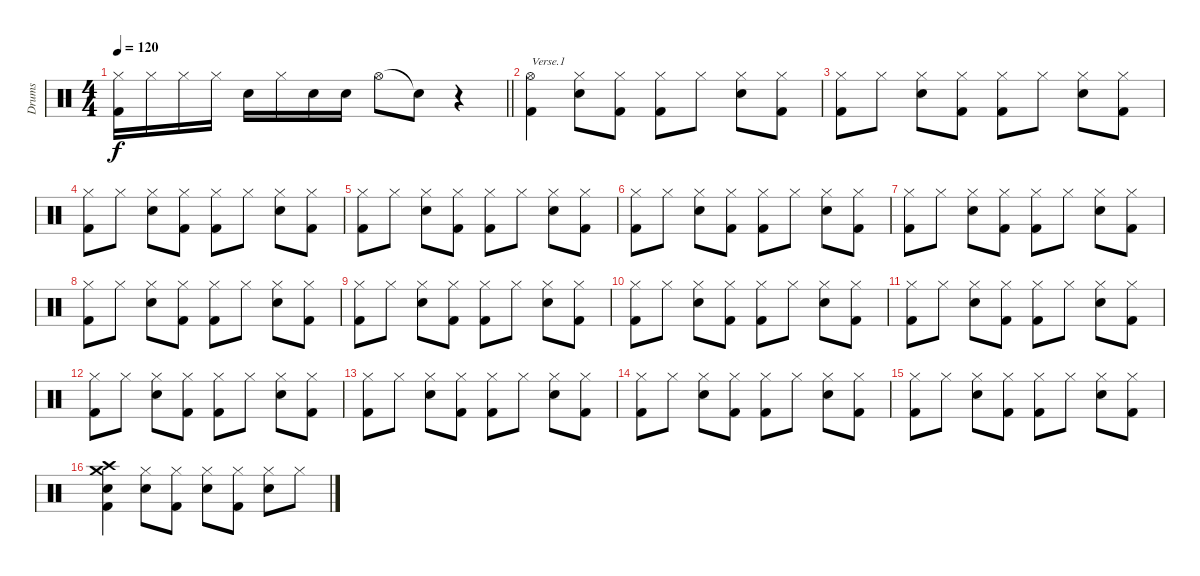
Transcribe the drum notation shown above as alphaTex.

\track ("Drums" "Drums") {instrument percussion}
\staff {score}
\articulation defaults
\ts (4 4)
\tempo 120
\clef neutral
\barLineRight lightlight
\ks c
("Hi-Hat (closed)" "Kick (hit) 2").16{dy f} "Hi-Hat (closed)".16 "Hi-Hat (closed)".16 "Hi-Hat (closed)".16 "Snare (hit) 2".16 "Hi-Hat (closed)".16 "Snare (hit) 2".16 "Snare (hit) 2".16 "Hi-Hat (open)".8 "Snare (hit)"{t}.8 r.4 |
("Hi-Hat (open)" "Kick (hit) 2").4{txt "Verse.1"} ("Hi-Hat (closed)" "Snare (hit) 2").8 ("Hi-Hat (closed)" "Kick (hit) 2").8 ("Hi-Hat (closed)" "Kick (hit) 2").8 "Hi-Hat (closed)".8 ("Hi-Hat (closed)" "Snare (hit) 2").8 ("Hi-Hat (closed)" "Kick (hit) 2").8 |
("Hi-Hat (closed)" "Kick (hit) 2").8 "Hi-Hat (closed)".8 ("Hi-Hat (closed)" "Snare (hit) 2").8 ("Hi-Hat (closed)" "Kick (hit) 2").8 ("Hi-Hat (closed)" "Kick (hit) 2").8 "Hi-Hat (closed)".8 ("Hi-Hat (closed)" "Snare (hit) 2").8 ("Hi-Hat (closed)" "Kick (hit) 2").8 |
("Hi-Hat (closed)" "Kick (hit) 2").8 "Hi-Hat (closed)".8 ("Hi-Hat (closed)" "Snare (hit) 2").8 ("Hi-Hat (closed)" "Kick (hit) 2").8 ("Hi-Hat (closed)" "Kick (hit) 2").8 "Hi-Hat (closed)".8 ("Hi-Hat (closed)" "Snare (hit) 2").8 ("Hi-Hat (closed)" "Kick (hit) 2").8 |
("Hi-Hat (closed)" "Kick (hit) 2").8 "Hi-Hat (closed)".8 ("Hi-Hat (closed)" "Snare (hit) 2").8 ("Hi-Hat (closed)" "Kick (hit) 2").8 ("Hi-Hat (closed)" "Kick (hit) 2").8 "Hi-Hat (closed)".8 ("Hi-Hat (closed)" "Snare (hit) 2").8 ("Hi-Hat (closed)" "Kick (hit) 2").8 |
("Hi-Hat (closed)" "Kick (hit) 2").8 "Hi-Hat (closed)".8 ("Hi-Hat (closed)" "Snare (hit) 2").8 ("Hi-Hat (closed)" "Kick (hit) 2").8 ("Hi-Hat (closed)" "Kick (hit) 2").8 "Hi-Hat (closed)".8 ("Hi-Hat (closed)" "Snare (hit) 2").8 ("Hi-Hat (closed)" "Kick (hit) 2").8 |
("Hi-Hat (closed)" "Kick (hit) 2").8 "Hi-Hat (closed)".8 ("Hi-Hat (closed)" "Snare (hit) 2").8 ("Hi-Hat (closed)" "Kick (hit) 2").8 ("Hi-Hat (closed)" "Kick (hit) 2").8 "Hi-Hat (closed)".8 ("Hi-Hat (closed)" "Snare (hit) 2").8 ("Hi-Hat (closed)" "Kick (hit) 2").8 |
("Hi-Hat (closed)" "Kick (hit) 2").8 "Hi-Hat (closed)".8 ("Hi-Hat (closed)" "Snare (hit) 2").8 ("Hi-Hat (closed)" "Kick (hit) 2").8 ("Hi-Hat (closed)" "Kick (hit) 2").8 "Hi-Hat (closed)".8 ("Hi-Hat (closed)" "Snare (hit) 2").8 ("Hi-Hat (closed)" "Kick (hit) 2").8 |
("Hi-Hat (closed)" "Kick (hit) 2").8 "Hi-Hat (closed)".8 ("Hi-Hat (closed)" "Snare (hit) 2").8 ("Hi-Hat (closed)" "Kick (hit) 2").8 ("Hi-Hat (closed)" "Kick (hit) 2").8 "Hi-Hat (closed)".8 ("Hi-Hat (closed)" "Snare (hit) 2").8 ("Hi-Hat (closed)" "Kick (hit) 2").8 |
("Hi-Hat (closed)" "Kick (hit) 2").8 "Hi-Hat (closed)".8 ("Hi-Hat (closed)" "Snare (hit) 2").8 ("Hi-Hat (closed)" "Kick (hit) 2").8 ("Hi-Hat (closed)" "Kick (hit) 2").8 "Hi-Hat (closed)".8 ("Hi-Hat (closed)" "Snare (hit) 2").8 ("Hi-Hat (closed)" "Kick (hit) 2").8 |
("Hi-Hat (closed)" "Kick (hit) 2").8 "Hi-Hat (closed)".8 ("Hi-Hat (closed)" "Snare (hit) 2").8 ("Hi-Hat (closed)" "Kick (hit) 2").8 ("Hi-Hat (closed)" "Kick (hit) 2").8 "Hi-Hat (closed)".8 ("Hi-Hat (closed)" "Snare (hit) 2").8 ("Hi-Hat (closed)" "Kick (hit) 2").8 |
("Hi-Hat (closed)" "Kick (hit) 2").8 "Hi-Hat (closed)".8 ("Hi-Hat (closed)" "Snare (hit) 2").8 ("Hi-Hat (closed)" "Kick (hit) 2").8 ("Hi-Hat (closed)" "Kick (hit) 2").8 "Hi-Hat (closed)".8 ("Hi-Hat (closed)" "Snare (hit) 2").8 ("Hi-Hat (closed)" "Kick (hit) 2").8 |
("Hi-Hat (closed)" "Kick (hit) 2").8 "Hi-Hat (closed)".8 ("Hi-Hat (closed)" "Snare (hit) 2").8 ("Hi-Hat (closed)" "Kick (hit) 2").8 ("Hi-Hat (closed)" "Kick (hit) 2").8 "Hi-Hat (closed)".8 ("Hi-Hat (closed)" "Snare (hit) 2").8 ("Hi-Hat (closed)" "Kick (hit) 2").8 |
("Hi-Hat (closed)" "Kick (hit) 2").8 "Hi-Hat (closed)".8 ("Hi-Hat (closed)" "Snare (hit) 2").8 ("Hi-Hat (closed)" "Kick (hit) 2").8 ("Hi-Hat (closed)" "Kick (hit) 2").8 "Hi-Hat (closed)".8 ("Hi-Hat (closed)" "Snare (hit) 2").8 ("Hi-Hat (closed)" "Kick (hit) 2").8 |
("Hi-Hat (closed)" "Kick (hit) 2").8 "Hi-Hat (closed)".8 ("Hi-Hat (closed)" "Snare (hit) 2").8 ("Hi-Hat (closed)" "Kick (hit) 2").8 ("Hi-Hat (closed)" "Kick (hit) 2").8 "Hi-Hat (closed)".8 ("Hi-Hat (closed)" "Snare (hit) 2").8 ("Hi-Hat (closed)" "Kick (hit) 2").8 |
("Crash medium (hit)" "Crash high (hit)" "Snare (hit) 2" "Kick (hit) 2").4 ("Hi-Hat (closed)" "Snare (hit) 2").8 ("Hi-Hat (closed)" "Kick (hit) 2").8 ("Hi-Hat (closed)" "Snare (hit) 2").8 ("Hi-Hat (closed)" "Kick (hit) 2").8 ("Hi-Hat (closed)" "Snare (hit) 2").8 "Hi-Hat (closed)".8
